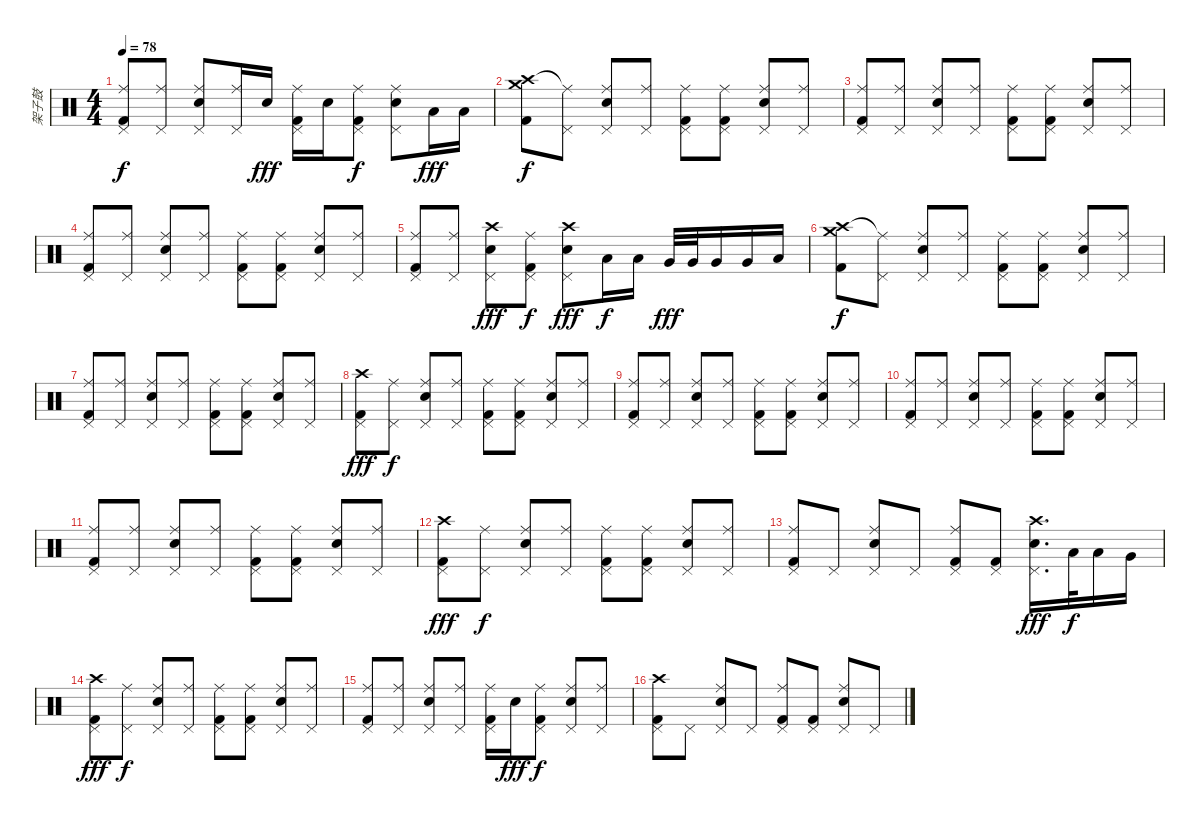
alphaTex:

\track ("架子鼓" "架子鼓") {instrument percussion}
\staff {score}
\articulation defaults
\ts (4 4)
\tempo 78
\clef neutral
\ks c
("Ride (middle)" "Pedal Hi-Hat (hit)" "Kick (hit) 2").8{dy f} ("Ride (middle)" "Pedal Hi-Hat (hit)").8 ("Ride (middle)" "Pedal Hi-Hat (hit)" "Electric Snare (hit)").8 ("Ride (middle)" "Pedal Hi-Hat (hit)").16 "Electric Snare (hit)".16{dy fff} ("Ride (middle)" "Pedal Hi-Hat (hit)" "Kick (hit) 2").16 "Electric Snare (hit)".16 ("Ride (middle)" "Pedal Hi-Hat (hit)" "Kick (hit) 2").8{dy f} ("Ride (middle)" "Pedal Hi-Hat (hit)" "Electric Snare (hit)").8 "Low Floor Tom (hit)".16{dy fff} "Low Floor Tom (hit)".16 |
("Crash high (hit)" "Crash medium (hit)" "Kick (hit) 2").8{dy f} ("Ride (middle)"{t} "Pedal Hi-Hat (hit)").8 ("Ride (middle)" "Pedal Hi-Hat (hit)" "Electric Snare (hit)").8 ("Ride (middle)" "Pedal Hi-Hat (hit)").8 ("Ride (middle)" "Pedal Hi-Hat (hit)" "Kick (hit) 2").8 ("Ride (middle)" "Pedal Hi-Hat (hit)" "Kick (hit) 2").8 ("Ride (middle)" "Pedal Hi-Hat (hit)" "Electric Snare (hit)").8 ("Ride (middle)" "Pedal Hi-Hat (hit)").8 |
("Ride (middle)" "Pedal Hi-Hat (hit)" "Kick (hit) 2").8 ("Ride (middle)" "Pedal Hi-Hat (hit)").8 ("Ride (middle)" "Pedal Hi-Hat (hit)" "Electric Snare (hit)").8 ("Ride (middle)" "Pedal Hi-Hat (hit)").8 ("Ride (middle)" "Pedal Hi-Hat (hit)" "Kick (hit) 2").8 ("Ride (middle)" "Pedal Hi-Hat (hit)" "Kick (hit) 2").8 ("Ride (middle)" "Pedal Hi-Hat (hit)" "Electric Snare (hit)").8 ("Ride (middle)" "Pedal Hi-Hat (hit)").8 |
("Ride (middle)" "Pedal Hi-Hat (hit)" "Kick (hit) 2").8 ("Ride (middle)" "Pedal Hi-Hat (hit)").8 ("Ride (middle)" "Pedal Hi-Hat (hit)" "Electric Snare (hit)").8 ("Ride (middle)" "Pedal Hi-Hat (hit)").8 ("Ride (middle)" "Pedal Hi-Hat (hit)" "Kick (hit) 2").8 ("Ride (middle)" "Pedal Hi-Hat (hit)" "Kick (hit) 2").8 ("Ride (middle)" "Pedal Hi-Hat (hit)" "Electric Snare (hit)").8 ("Ride (middle)" "Pedal Hi-Hat (hit)").8 |
("Ride (middle)" "Pedal Hi-Hat (hit)" "Kick (hit) 2").8 ("Ride (middle)" "Pedal Hi-Hat (hit)").8 ("Crash high (hit)" "Pedal Hi-Hat (hit)" "Electric Snare (hit)").8{dy fff} ("Ride (middle)" "Pedal Hi-Hat (hit)" "Kick (hit) 2").8{dy f} ("Crash high (hit)" "Pedal Hi-Hat (hit)" "Electric Snare (hit)").8{dy fff} "Low Tom (hit)".16{dy f} "Low Tom (hit)".16 "Very Low Tom (hit)".32{dy fff} "Very Low Tom (hit)".32 "Very Low Tom (hit)".16 "Very Low Tom (hit)".16 "Low Floor Tom (hit)".16 |
("Crash high (hit)" "Crash medium (hit)" "Kick (hit) 2").8{dy f} ("Ride (middle)"{t} "Pedal Hi-Hat (hit)").8 ("Ride (middle)" "Pedal Hi-Hat (hit)" "Electric Snare (hit)").8 ("Ride (middle)" "Pedal Hi-Hat (hit)").8 ("Ride (middle)" "Pedal Hi-Hat (hit)" "Kick (hit) 2").8 ("Ride (middle)" "Pedal Hi-Hat (hit)" "Kick (hit) 2").8 ("Ride (middle)" "Pedal Hi-Hat (hit)" "Electric Snare (hit)").8 ("Ride (middle)" "Pedal Hi-Hat (hit)").8 |
("Ride (middle)" "Pedal Hi-Hat (hit)" "Kick (hit) 2").8 ("Ride (middle)" "Pedal Hi-Hat (hit)").8 ("Ride (middle)" "Pedal Hi-Hat (hit)" "Electric Snare (hit)").8 ("Ride (middle)" "Pedal Hi-Hat (hit)").8 ("Ride (middle)" "Pedal Hi-Hat (hit)" "Kick (hit) 2").8 ("Ride (middle)" "Pedal Hi-Hat (hit)" "Kick (hit) 2").8 ("Ride (middle)" "Pedal Hi-Hat (hit)" "Electric Snare (hit)").8 ("Ride (middle)" "Pedal Hi-Hat (hit)").8 |
("Crash high (hit)" "Pedal Hi-Hat (hit)" "Kick (hit) 2").8{dy fff} ("Ride (middle)" "Pedal Hi-Hat (hit)").8{dy f} ("Ride (middle)" "Pedal Hi-Hat (hit)" "Electric Snare (hit)").8 ("Ride (middle)" "Pedal Hi-Hat (hit)").8 ("Ride (middle)" "Pedal Hi-Hat (hit)" "Kick (hit) 2").8 ("Ride (middle)" "Pedal Hi-Hat (hit)" "Kick (hit) 2").8 ("Ride (middle)" "Pedal Hi-Hat (hit)" "Electric Snare (hit)").8 ("Ride (middle)" "Pedal Hi-Hat (hit)").8 |
("Ride (middle)" "Pedal Hi-Hat (hit)" "Kick (hit) 2").8 ("Ride (middle)" "Pedal Hi-Hat (hit)").8 ("Ride (middle)" "Pedal Hi-Hat (hit)" "Electric Snare (hit)").8 ("Ride (middle)" "Pedal Hi-Hat (hit)").8 ("Ride (middle)" "Pedal Hi-Hat (hit)" "Kick (hit) 2").8 ("Ride (middle)" "Pedal Hi-Hat (hit)" "Kick (hit) 2").8 ("Ride (middle)" "Pedal Hi-Hat (hit)" "Electric Snare (hit)").8 ("Ride (middle)" "Pedal Hi-Hat (hit)").8 |
("Ride (middle)" "Pedal Hi-Hat (hit)" "Kick (hit) 2").8 ("Ride (middle)" "Pedal Hi-Hat (hit)").8 ("Ride (middle)" "Pedal Hi-Hat (hit)" "Electric Snare (hit)").8 ("Ride (middle)" "Pedal Hi-Hat (hit)").8 ("Ride (middle)" "Pedal Hi-Hat (hit)" "Kick (hit) 2").8 ("Ride (middle)" "Pedal Hi-Hat (hit)" "Kick (hit) 2").8 ("Ride (middle)" "Pedal Hi-Hat (hit)" "Electric Snare (hit)").8 ("Ride (middle)" "Pedal Hi-Hat (hit)").8 |
("Ride (middle)" "Pedal Hi-Hat (hit)" "Kick (hit) 2").8 ("Ride (middle)" "Pedal Hi-Hat (hit)").8 ("Ride (middle)" "Pedal Hi-Hat (hit)" "Electric Snare (hit)").8 ("Ride (middle)" "Pedal Hi-Hat (hit)").8 ("Ride (middle)" "Pedal Hi-Hat (hit)" "Kick (hit) 2").8 ("Ride (middle)" "Pedal Hi-Hat (hit)" "Kick (hit) 2").8 ("Ride (middle)" "Pedal Hi-Hat (hit)" "Electric Snare (hit)").8 ("Ride (middle)" "Pedal Hi-Hat (hit)").8 |
("Crash high (hit)" "Pedal Hi-Hat (hit)" "Kick (hit) 2").8{dy fff} ("Ride (middle)" "Pedal Hi-Hat (hit)").8{dy f} ("Ride (middle)" "Pedal Hi-Hat (hit)" "Electric Snare (hit)").8 ("Ride (middle)" "Pedal Hi-Hat (hit)").8 ("Ride (middle)" "Pedal Hi-Hat (hit)" "Kick (hit) 2").8 ("Ride (middle)" "Pedal Hi-Hat (hit)" "Kick (hit) 2").8 ("Ride (middle)" "Pedal Hi-Hat (hit)" "Electric Snare (hit)").8 ("Ride (middle)" "Pedal Hi-Hat (hit)").8 |
("Ride (middle)" "Pedal Hi-Hat (hit)" "Kick (hit) 2").8 "Pedal Hi-Hat (hit)".8 ("Ride (middle)" "Pedal Hi-Hat (hit)" "Electric Snare (hit)").8 "Pedal Hi-Hat (hit)".8 ("Ride (middle)" "Pedal Hi-Hat (hit)" "Kick (hit) 2").8 ("Pedal Hi-Hat (hit)" "Kick (hit) 2").8 ("Crash high (hit)" "Pedal Hi-Hat (hit)" "Electric Snare (hit)").16{d dy fff} "Low Tom (hit)".32{dy f} "Low Tom (hit)".16 "Very Low Tom (hit)".16 |
("Crash high (hit)" "Pedal Hi-Hat (hit)" "Kick (hit) 2").8{dy fff} ("Ride (middle)" "Pedal Hi-Hat (hit)").8{dy f} ("Ride (middle)" "Pedal Hi-Hat (hit)" "Electric Snare (hit)").8 ("Ride (middle)" "Pedal Hi-Hat (hit)").8 ("Ride (middle)" "Pedal Hi-Hat (hit)" "Kick (hit) 2").8 ("Ride (middle)" "Pedal Hi-Hat (hit)" "Kick (hit) 2").8 ("Ride (middle)" "Pedal Hi-Hat (hit)" "Electric Snare (hit)").8 ("Ride (middle)" "Pedal Hi-Hat (hit)").8 |
("Ride (middle)" "Pedal Hi-Hat (hit)" "Kick (hit) 2").8 ("Ride (middle)" "Pedal Hi-Hat (hit)").8 ("Ride (middle)" "Pedal Hi-Hat (hit)" "Electric Snare (hit)").8 ("Ride (middle)" "Pedal Hi-Hat (hit)").8 ("Ride (middle)" "Pedal Hi-Hat (hit)" "Kick (hit) 2").16 "Electric Snare (hit)".16{dy fff} ("Ride (middle)" "Pedal Hi-Hat (hit)" "Kick (hit) 2").8{dy f} ("Ride (middle)" "Pedal Hi-Hat (hit)" "Electric Snare (hit)").8 ("Ride (middle)" "Pedal Hi-Hat (hit)").8 |
("Crash high (hit)" "Pedal Hi-Hat (hit)" "Kick (hit) 2").8 "Pedal Hi-Hat (hit)".8 ("Ride (middle)" "Pedal Hi-Hat (hit)" "Electric Snare (hit)").8 "Pedal Hi-Hat (hit)".8 ("Ride (middle)" "Pedal Hi-Hat (hit)" "Kick (hit) 2").8 ("Pedal Hi-Hat (hit)" "Kick (hit) 2").8 ("Ride (middle)" "Pedal Hi-Hat (hit)" "Electric Snare (hit)").8 "Pedal Hi-Hat (hit)".8
